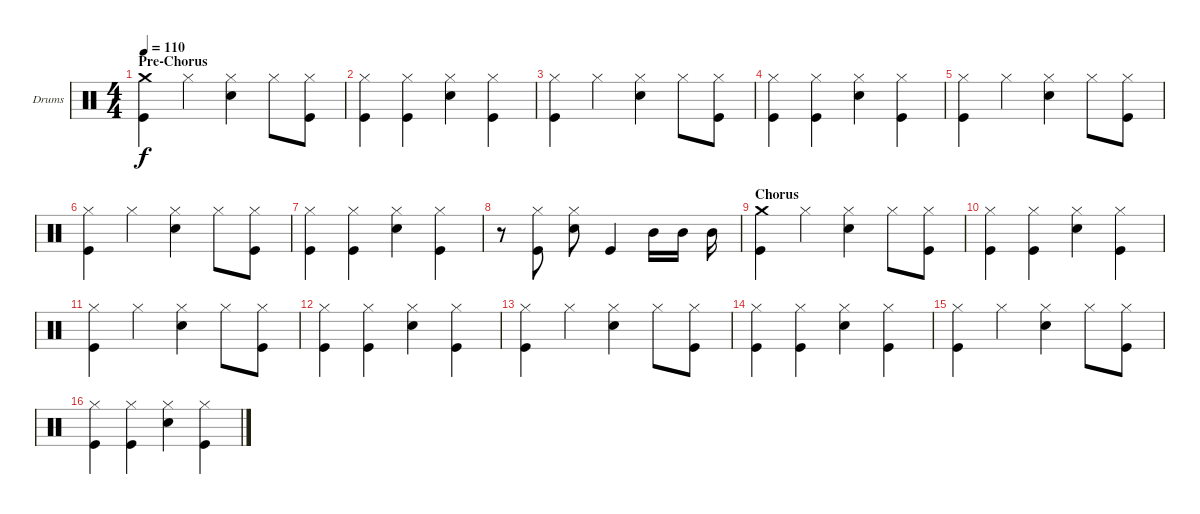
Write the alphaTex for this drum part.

\defaultSystemsLayout 4
\bracketExtendMode groupsimilarinstruments
\firstSystemTrackNameOrientation horizontal
\otherSystemsTrackNameOrientation horizontal
\track ("Drum" "Drums") {instrument percussion}
\staff {score}
\articulation defaults
\ts (4 4)
\section ("" "Pre-Chorus")
\tempo 110
\clef neutral
\scale
0.333333
\ks c
("Crash medium (hit)" "Kick (hit)").4{dy f} "Hi-Hat (closed)".4 ("Hi-Hat (closed)" "Snare (hit) 2").4 "Hi-Hat (closed)".8 ("Hi-Hat (closed)" "Kick (hit)").8 |
\scale
0.333333 ("Hi-Hat (closed)" "Kick (hit)").4 ("Hi-Hat (closed)" "Kick (hit)").4 ("Hi-Hat (closed)" "Snare (hit) 2").4 ("Hi-Hat (closed)" "Kick (hit)").4 |
\scale
0.333333 ("Hi-Hat (closed)" "Kick (hit)").4 "Hi-Hat (closed)".4 ("Hi-Hat (closed)" "Snare (hit) 2").4 "Hi-Hat (closed)".8 ("Hi-Hat (closed)" "Kick (hit)").8 |
\scale
0.333333 ("Hi-Hat (closed)" "Kick (hit)").4 ("Hi-Hat (closed)" "Kick (hit)").4 ("Hi-Hat (closed)" "Snare (hit) 2").4 ("Hi-Hat (closed)" "Kick (hit)").4 |
\scale
0.333333 ("Hi-Hat (closed)" "Kick (hit)").4 "Hi-Hat (closed)".4 ("Hi-Hat (closed)" "Snare (hit) 2").4 "Hi-Hat (closed)".8 ("Hi-Hat (closed)" "Kick (hit)").8 |
\scale
0.333333 ("Hi-Hat (closed)" "Kick (hit)").4 "Hi-Hat (closed)".4 ("Hi-Hat (closed)" "Snare (hit) 2").4 "Hi-Hat (closed)".8 ("Hi-Hat (closed)" "Kick (hit)").8 |
\scale
0.333333 ("Hi-Hat (closed)" "Kick (hit)").4 ("Hi-Hat (closed)" "Kick (hit)").4 ("Hi-Hat (closed)" "Snare (hit) 2").4 ("Hi-Hat (closed)" "Kick (hit)").4 |
\scale
0.333333 r.8 ("Hi-Hat (closed)" "Kick (hit)").8 ("Hi-Hat (closed)" "Snare (hit) 2").8 "Kick (hit)".4 "Mid Tom (hit)".16 "Mid Tom (hit)".16 "Mid Tom (hit)".16 |
\section ("" "Chorus")
\scale
0.333333 ("Crash medium (hit)" "Kick (hit)").4 "Hi-Hat (closed)".4 ("Hi-Hat (closed)" "Snare (hit) 2").4 "Hi-Hat (closed)".8 ("Hi-Hat (closed)" "Kick (hit)").8 |
\scale
0.333333 ("Hi-Hat (closed)" "Kick (hit)").4 ("Hi-Hat (closed)" "Kick (hit)").4 ("Hi-Hat (closed)" "Snare (hit) 2").4 ("Hi-Hat (closed)" "Kick (hit)").4 |
("Hi-Hat (closed)" "Kick (hit)").4 "Hi-Hat (closed)".4 ("Hi-Hat (closed)" "Snare (hit) 2").4 "Hi-Hat (closed)".8 ("Hi-Hat (closed)" "Kick (hit)").8 |
("Hi-Hat (closed)" "Kick (hit)").4 ("Hi-Hat (closed)" "Kick (hit)").4 ("Hi-Hat (closed)" "Snare (hit) 2").4 ("Hi-Hat (closed)" "Kick (hit)").4 |
("Hi-Hat (closed)" "Kick (hit)").4 "Hi-Hat (closed)".4 ("Hi-Hat (closed)" "Snare (hit) 2").4 "Hi-Hat (closed)".8 ("Hi-Hat (closed)" "Kick (hit)").8 |
("Hi-Hat (closed)" "Kick (hit)").4 ("Hi-Hat (closed)" "Kick (hit)").4 ("Hi-Hat (closed)" "Snare (hit) 2").4 ("Hi-Hat (closed)" "Kick (hit)").4 |
("Hi-Hat (closed)" "Kick (hit)").4 "Hi-Hat (closed)".4 ("Hi-Hat (closed)" "Snare (hit) 2").4 "Hi-Hat (closed)".8 ("Hi-Hat (closed)" "Kick (hit)").8 |
("Hi-Hat (closed)" "Kick (hit)").4 ("Hi-Hat (closed)" "Kick (hit)").4 ("Hi-Hat (closed)" "Snare (hit) 2").4 ("Hi-Hat (closed)" "Kick (hit)").4
